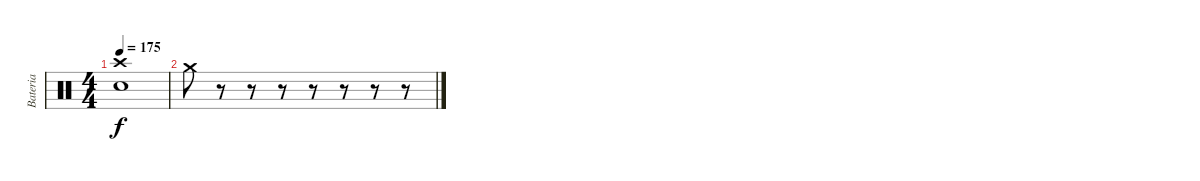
\track ("Bateria" "Bateria") {instrument percussion}
\staff {score}
\articulation defaults
\ts (4 4)
\tempo 175
\clef neutral
\ks c
("Crash high (hit)" "Electric Snare (hit)").1{dy f} |
"Crash medium (hit)".8 r.8 r.8 r.8 r.8 r.8 r.8 r.8
